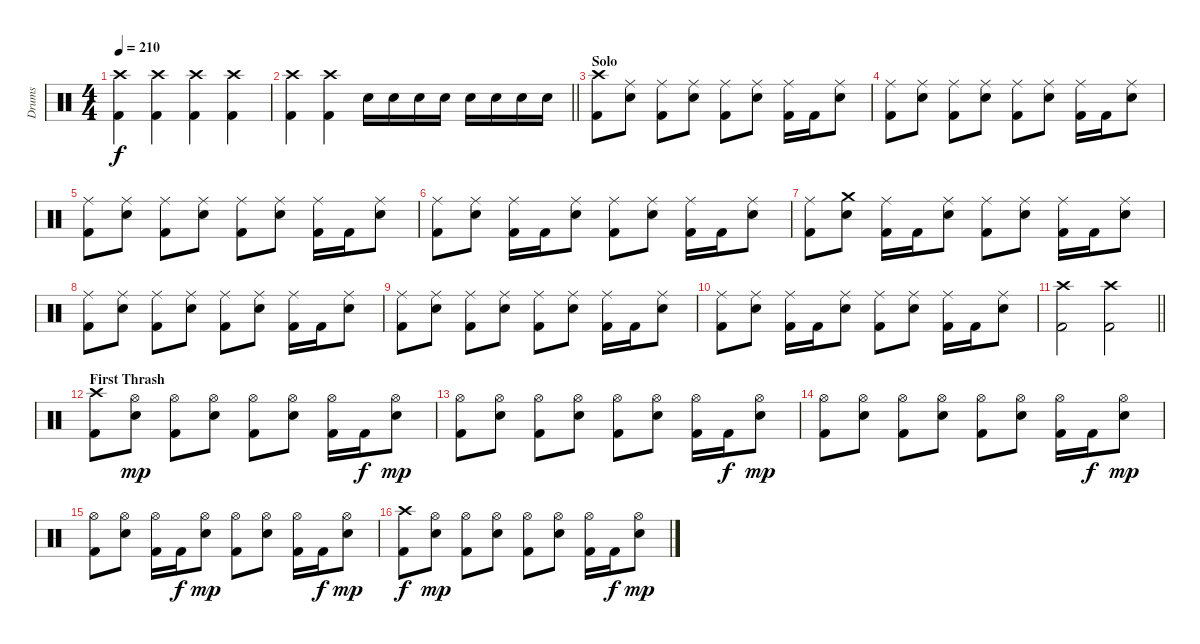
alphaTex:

\track ("Drums" "Drums") {instrument percussion}
\staff {score}
\articulation defaults
\ts (4 4)
\tempo 210
\clef neutral
\ks c
("Crash high (hit)" "Kick (hit) 2").4{dy f} ("Crash high (hit)" "Kick (hit) 2").4 ("Crash high (hit)" "Kick (hit) 2").4 ("Crash high (hit)" "Kick (hit) 2").4 |
\barLineRight lightlight
("Crash high (hit)" "Kick (hit) 2").4 ("Crash high (hit)" "Kick (hit) 2").4 "Snare (hit) 2".16 "Snare (hit) 2".16 "Snare (hit) 2".16 "Snare (hit) 2".16 "Snare (hit) 2".16 "Snare (hit) 2".16 "Snare (hit) 2".16 "Snare (hit) 2".16 |
\section ("" "Solo")
("Crash high (hit)" "Kick (hit) 2").8 ("Ride (middle)" "Snare (hit) 2").8 ("Ride (middle)" "Kick (hit) 2").8 ("Ride (middle)" "Snare (hit) 2").8 ("Ride (middle)" "Kick (hit) 2").8 ("Ride (middle)" "Snare (hit) 2").8 ("Ride (middle)" "Kick (hit) 2").16 "Kick (hit) 2".16 ("Ride (middle)" "Snare (hit) 2").8 |
("Ride (middle)" "Kick (hit) 2").8 ("Ride (middle)" "Snare (hit) 2").8 ("Ride (middle)" "Kick (hit) 2").8 ("Ride (middle)" "Snare (hit) 2").8 ("Ride (middle)" "Kick (hit) 2").8 ("Ride (middle)" "Snare (hit) 2").8 ("Ride (middle)" "Kick (hit) 2").16 "Kick (hit) 2".16 ("Ride (middle)" "Snare (hit) 2").8 |
("Ride (middle)" "Kick (hit) 2").8 ("Ride (middle)" "Snare (hit) 2").8 ("Ride (middle)" "Kick (hit) 2").8 ("Ride (middle)" "Snare (hit) 2").8 ("Ride (middle)" "Kick (hit) 2").8 ("Ride (middle)" "Snare (hit) 2").8 ("Ride (middle)" "Kick (hit) 2").16 "Kick (hit) 2".16 ("Ride (middle)" "Snare (hit) 2").8 |
("Ride (middle)" "Kick (hit) 2").8 ("Ride (middle)" "Snare (hit) 2").8 ("Ride (middle)" "Kick (hit) 2").16 "Kick (hit) 2".16 ("Ride (middle)" "Snare (hit) 2").8 ("Ride (middle)" "Kick (hit) 2").8 ("Ride (middle)" "Snare (hit) 2").8 ("Ride (middle)" "Kick (hit) 2").16 "Kick (hit) 2".16 ("Ride (middle)" "Snare (hit) 2").8 |
("Ride (middle)" "Kick (hit) 2").8 ("Crash medium (hit)" "Snare (hit) 2").8 ("Ride (middle)" "Kick (hit) 2").16 "Kick (hit) 2".16 ("Ride (middle)" "Snare (hit) 2").8 ("Ride (middle)" "Kick (hit) 2").8 ("Ride (middle)" "Snare (hit) 2").8 ("Ride (middle)" "Kick (hit) 2").16 "Kick (hit) 2".16 ("Ride (middle)" "Snare (hit) 2").8 |
("Ride (middle)" "Kick (hit) 2").8 ("Ride (middle)" "Snare (hit) 2").8 ("Ride (middle)" "Kick (hit) 2").8 ("Ride (middle)" "Snare (hit) 2").8 ("Ride (middle)" "Kick (hit) 2").8 ("Ride (middle)" "Snare (hit) 2").8 ("Ride (middle)" "Kick (hit) 2").16 "Kick (hit) 2".16 ("Ride (middle)" "Snare (hit) 2").8 |
("Ride (middle)" "Kick (hit) 2").8 ("Ride (middle)" "Snare (hit) 2").8 ("Ride (middle)" "Kick (hit) 2").8 ("Ride (middle)" "Snare (hit) 2").8 ("Ride (middle)" "Kick (hit) 2").8 ("Ride (middle)" "Snare (hit) 2").8 ("Ride (middle)" "Kick (hit) 2").16 "Kick (hit) 2".16 ("Ride (middle)" "Snare (hit) 2").8 |
("Ride (middle)" "Kick (hit) 2").8 ("Ride (middle)" "Snare (hit) 2").8 ("Ride (middle)" "Kick (hit) 2").16 "Kick (hit) 2".16 ("Ride (middle)" "Snare (hit) 2").8 ("Ride (middle)" "Kick (hit) 2").8 ("Ride (middle)" "Snare (hit) 2").8 ("Ride (middle)" "Kick (hit) 2").16 "Kick (hit) 2".16 ("Ride (middle)" "Snare (hit) 2").8 |
\barLineRight lightlight
("Crash high (hit)" "Kick (hit) 2").2 ("Crash high (hit)" "Kick (hit) 2").2 |
\section ("" "First Thrash")
("Crash high (hit)" "Kick (hit) 2").8 ("Hi-Hat (open)" "Snare (hit) 2").8{dy mp} ("Hi-Hat (open)" "Kick (hit) 2").8 ("Hi-Hat (open)" "Snare (hit) 2").8 ("Hi-Hat (open)" "Kick (hit) 2").8 ("Hi-Hat (open)" "Snare (hit) 2").8 ("Hi-Hat (open)" "Kick (hit) 2").16 "Kick (hit) 2".16{dy f} ("Hi-Hat (open)" "Snare (hit) 2").8{dy mp} |
("Hi-Hat (open)" "Kick (hit) 2").8 ("Hi-Hat (open)" "Snare (hit) 2").8 ("Hi-Hat (open)" "Kick (hit) 2").8 ("Hi-Hat (open)" "Snare (hit) 2").8 ("Hi-Hat (open)" "Kick (hit) 2").8 ("Hi-Hat (open)" "Snare (hit) 2").8 ("Hi-Hat (open)" "Kick (hit) 2").16 "Kick (hit) 2".16{dy f} ("Hi-Hat (open)" "Snare (hit) 2").8{dy mp} |
("Hi-Hat (open)" "Kick (hit) 2").8 ("Hi-Hat (open)" "Snare (hit) 2").8 ("Hi-Hat (open)" "Kick (hit) 2").8 ("Hi-Hat (open)" "Snare (hit) 2").8 ("Hi-Hat (open)" "Kick (hit) 2").8 ("Hi-Hat (open)" "Snare (hit) 2").8 ("Hi-Hat (open)" "Kick (hit) 2").16 "Kick (hit) 2".16{dy f} ("Hi-Hat (open)" "Snare (hit) 2").8{dy mp} |
("Hi-Hat (open)" "Kick (hit) 2").8 ("Hi-Hat (open)" "Snare (hit) 2").8 ("Hi-Hat (open)" "Kick (hit) 2").16 "Kick (hit) 2".16{dy f} ("Hi-Hat (open)" "Snare (hit) 2").8{dy mp} ("Hi-Hat (open)" "Kick (hit) 2").8 ("Hi-Hat (open)" "Snare (hit) 2").8 ("Hi-Hat (open)" "Kick (hit) 2").16 "Kick (hit) 2".16{dy f} ("Hi-Hat (open)" "Snare (hit) 2").8{dy mp} |
("Crash high (hit)" "Kick (hit) 2").8{dy f} ("Hi-Hat (open)" "Snare (hit) 2").8{dy mp} ("Hi-Hat (open)" "Kick (hit) 2").8 ("Hi-Hat (open)" "Snare (hit) 2").8 ("Hi-Hat (open)" "Kick (hit) 2").8 ("Hi-Hat (open)" "Snare (hit) 2").8 ("Hi-Hat (open)" "Kick (hit) 2").16 "Kick (hit) 2".16{dy f} ("Hi-Hat (open)" "Snare (hit) 2").8{dy mp}
